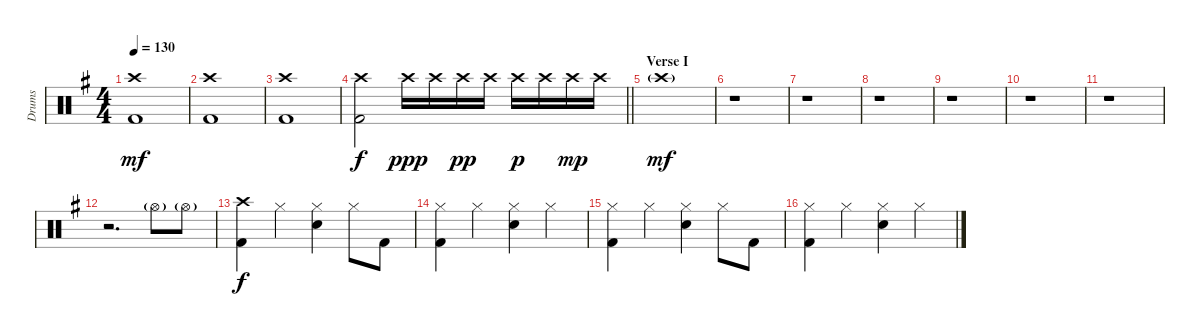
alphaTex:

\track ("Drums" "Drums") {instrument percussion}
\staff {score}
\articulation defaults
\ts (4 4)
\tempo 130
\clef neutral
\ks eminor
("Crash high (hit)" "Kick (hit) 2").1{dy mf} |
("Crash high (hit)" "Kick (hit) 2").1 |
("Crash high (hit)" "Kick (hit) 2").1 |
\barLineRight lightlight
("Crash high (hit)" "Kick (hit) 2").2{dy f} "Crash high (hit)".16{dy ppp} "Crash high (hit)".16 "Crash high (hit)".16{dy pp} "Crash high (hit)".16 "Crash high (hit)".16{dy p} "Crash high (hit)".16 "Crash high (hit)".16{dy mp} "Crash high (hit)".16 |
\section ("" "Verse I")
"Crash high (hit)"{g}.1{dy mf} |
r.1 |
r.1 |
r.1 |
r.1 |
r.1 |
r.1 |
r.2{d} "Hi-Hat (open)"{g}.8 "Hi-Hat (open)"{g}.8 |
("Crash high (hit)" "Kick (hit) 2").4{dy f} "Hi-Hat (closed)".4 ("Hi-Hat (closed)" "Snare (hit) 2").4 "Hi-Hat (closed)".8 "Kick (hit) 2".8 |
("Hi-Hat (closed)" "Kick (hit) 2").4 "Hi-Hat (closed)".4 ("Hi-Hat (closed)" "Snare (hit) 2").4 "Hi-Hat (closed)".4 |
("Hi-Hat (closed)" "Kick (hit) 2").4 "Hi-Hat (closed)".4 ("Hi-Hat (closed)" "Snare (hit) 2").4 "Hi-Hat (closed)".8 "Kick (hit) 2".8 |
("Hi-Hat (closed)" "Kick (hit) 2").4 "Hi-Hat (closed)".4 ("Hi-Hat (closed)" "Snare (hit) 2").4 "Hi-Hat (closed)".4
